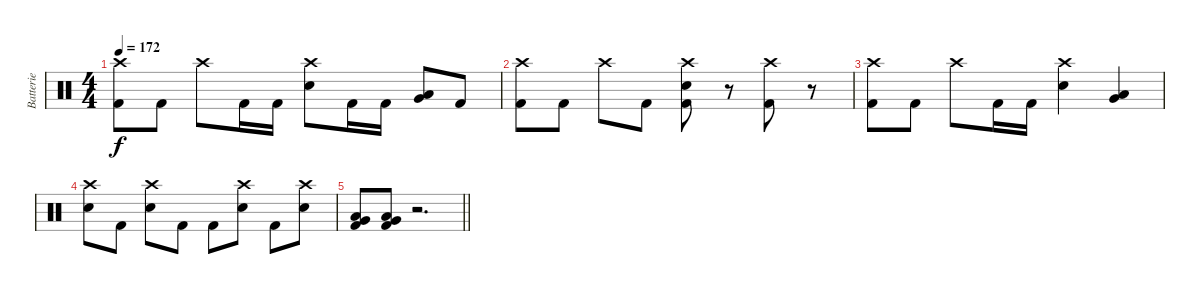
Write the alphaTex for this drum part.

\track ("Batterie" "Batterie") {instrument percussion}
\staff {score}
\articulation defaults
\ts (4 4)
\tempo 172
\clef neutral
\ks c
("Crash high (hit)" "Kick (hit) 2").8{dy f} "Kick (hit) 2".8 "Crash high (hit)".8 "Kick (hit) 2".16 "Kick (hit) 2".16 ("Crash high (hit)" "Electric Snare (hit)").8 "Kick (hit) 2".16 "Kick (hit) 2".16 ("Low Tom (hit)" "Very Low Tom (hit)").8 "Kick (hit) 2".8 |
("Crash high (hit)" "Kick (hit) 2").8 "Kick (hit) 2".8 "Crash high (hit)".8 "Kick (hit) 2".8 ("Crash high (hit)" "Electric Snare (hit)" "Kick (hit) 2").8 r.8 ("Crash high (hit)" "Kick (hit) 2").8 r.8 |
("Crash high (hit)" "Kick (hit) 2").8 "Kick (hit) 2".8 "Crash high (hit)".8 "Kick (hit) 2".16 "Kick (hit) 2".16 ("Crash high (hit)" "Electric Snare (hit)").4 ("Low Tom (hit)" "Very Low Tom (hit)").4 |
("Crash high (hit)" "Electric Snare (hit)").8 "Kick (hit) 2".8 ("Crash high (hit)" "Electric Snare (hit)").8 "Kick (hit) 2".8 "Kick (hit) 2".8 ("Crash high (hit)" "Electric Snare (hit)").8 "Kick (hit) 2".8 ("Crash high (hit)" "Electric Snare (hit)").8 |
\barLineRight lightlight
("Low Tom (hit)" "Very Low Tom (hit)" "Kick (hit) 2").8 ("Low Tom (hit)" "Very Low Tom (hit)" "Kick (hit) 2").8 r.2{d}
